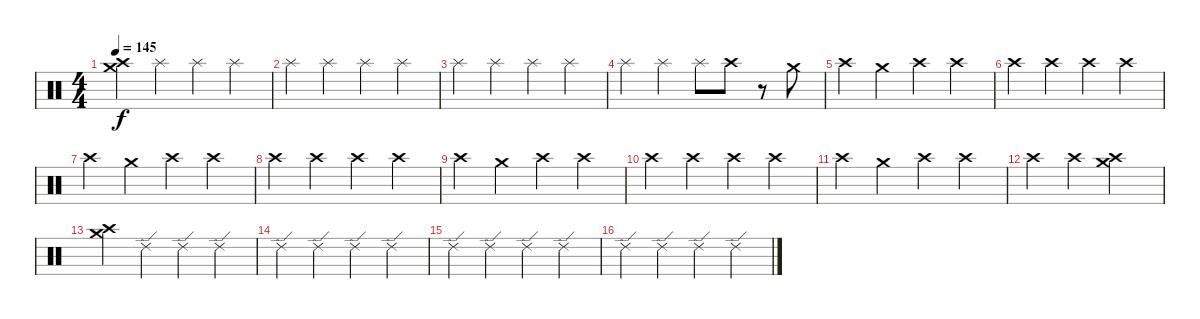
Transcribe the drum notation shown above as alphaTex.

\track "" {instrument percussion}
\staff {score}
\articulation defaults
\ts (4 4)
\tempo 145
\clef neutral
\ks c
("Crash medium (hit)" "Crash high (hit)").4{dy f} "Splash (hit)".4 "Splash (hit)".4 "Splash (hit)".4 |
"Splash (hit)".4 "Splash (hit)".4 "Splash (hit)".4 "Splash (hit)".4 |
"Splash (hit)".4 "Splash (hit)".4 "Splash (hit)".4 "Splash (hit)".4 |
"Splash (hit)".4 "Splash (hit)".4 "Splash (hit)".8 "Crash high (hit)".8 r.8 "Crash medium (hit)".8 |
"Crash high (hit)".4 "Crash medium (hit)".4 "Crash high (hit)".4 "Crash high (hit)".4 |
"Crash high (hit)".4 "Crash high (hit)".4 "Crash high (hit)".4 "Crash high (hit)".4 |
"Crash high (hit)".4 "Crash medium (hit)".4 "Crash high (hit)".4 "Crash high (hit)".4 |
"Crash high (hit)".4 "Crash high (hit)".4 "Crash high (hit)".4 "Crash high (hit)".4 |
"Crash high (hit)".4 "Crash medium (hit)".4 "Crash high (hit)".4 "Crash high (hit)".4 |
"Crash high (hit)".4 "Crash high (hit)".4 "Crash high (hit)".4 "Crash high (hit)".4 |
"Crash high (hit)".4 "Crash medium (hit)".4 "Crash high (hit)".4 "Crash high (hit)".4 |
"Crash high (hit)".4 "Crash high (hit)".4 ("Crash medium (hit)" "Crash high (hit)").2 |
("Crash medium (hit)" "Crash high (hit)").4 "Ride (edge) 2".4 "Ride (edge) 2".4 "Ride (edge) 2".4 |
"Ride (edge) 2".4 "Ride (edge) 2".4 "Ride (edge) 2".4 "Ride (edge) 2".4 |
"Ride (edge) 2".4 "Ride (edge) 2".4 "Ride (edge) 2".4 "Ride (edge) 2".4 |
"Ride (edge) 2".4 "Ride (edge) 2".4 "Ride (edge) 2".4 "Ride (edge) 2".4
